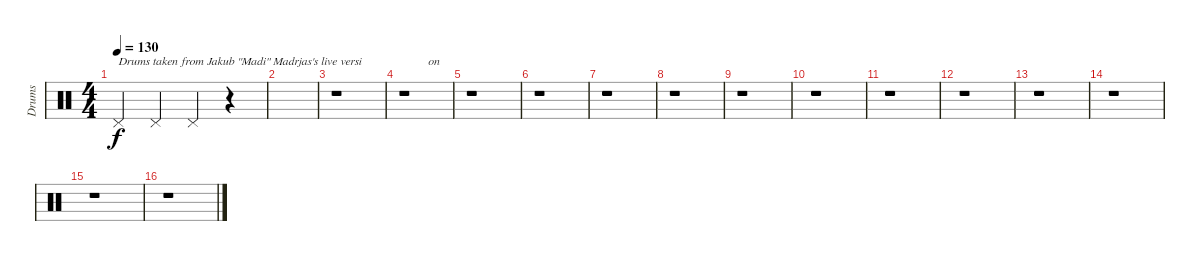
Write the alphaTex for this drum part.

\track ("Drums" "Drums") {instrument percussion}
\staff {score}
\articulation defaults
\ts (4 4)
\tempo 130
\clef neutral
\ks c "Pedal Hi-Hat (hit)".4{txt "Drums taken from Jakub \"Madi\" Madrjas's live versi" dy f} "Pedal Hi-Hat (hit)".4 "Pedal Hi-Hat (hit)".4
r.4 |
|
r.1 |
r.1{txt "        on"} |
r.1 |
r.1 |
r.1 |
r.1 |
r.1 |
r.1 |
r.1 |
r.1 |
r.1 |
r.1 |
r.1 |
r.1
